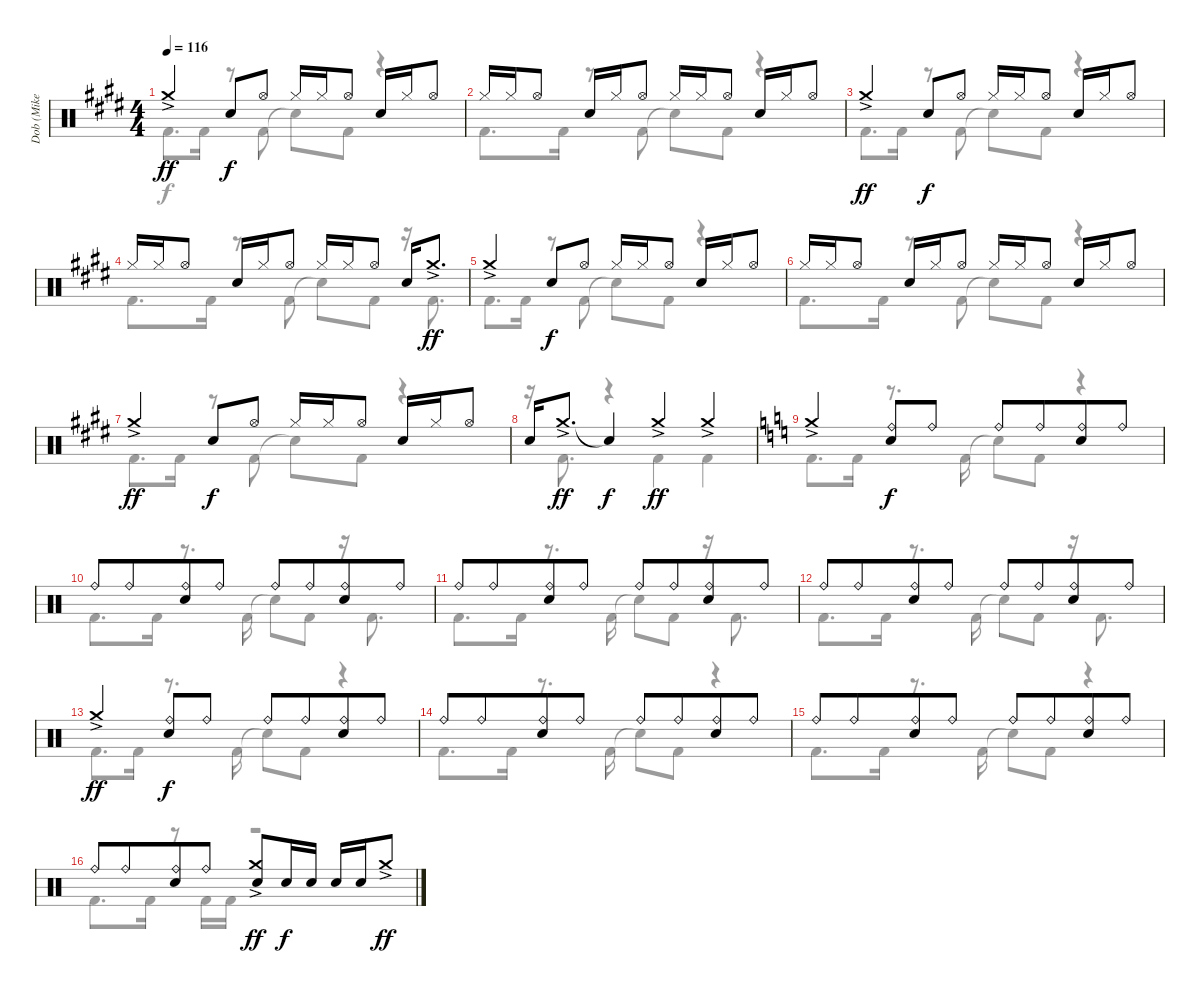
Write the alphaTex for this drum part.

\track ("Dob (Mike Terrana)" "Dob (Mike ") {instrument percussion}
\staff {score}
\articulation defaults
\voice
\ts (4 4)
\tempo 116
\clef neutral
\ks e "Crash medium (hit)"{ac}.4{dy ff} "Electric Snare (hit)".8{dy f} "Hi-Hat (open)".8 "Hi-Hat (closed)".16 "Hi-Hat (closed)".16 "Hi-Hat (open)".8 "Electric Snare (hit)".16 "Hi-Hat (closed)".16 "Hi-Hat (open)".8
|
"Hi-Hat (closed)".16 "Hi-Hat (closed)".16 "Hi-Hat (open)".8 "Electric Snare (hit)".16 "Hi-Hat (closed)".16 "Hi-Hat (open)".8 "Hi-Hat (closed)".16 "Hi-Hat (closed)".16 "Hi-Hat (open)".8 "Electric Snare (hit)".16 "Hi-Hat (closed)".16 "Hi-Hat (open)".8 |
"Crash medium (hit)"{ac}.4{dy ff} "Electric Snare (hit)".8{dy f} "Hi-Hat (open)".8 "Hi-Hat (closed)".16 "Hi-Hat (closed)".16 "Hi-Hat (open)".8 "Electric Snare (hit)".16 "Hi-Hat (closed)".16 "Hi-Hat (open)".8 |
"Hi-Hat (closed)".16 "Hi-Hat (closed)".16 "Hi-Hat (open)".8 "Electric Snare (hit)".16 "Hi-Hat (closed)".16 "Hi-Hat (open)".8 "Hi-Hat (closed)".16 "Hi-Hat (closed)".16 "Hi-Hat (open)".8 "Electric Snare (hit)".16 "Crash medium (hit)"{ac}.8{d dy ff} |
"Crash medium (hit)"{ac}.4 "Electric Snare (hit)".8{dy f} "Hi-Hat (open)".8 "Hi-Hat (closed)".16 "Hi-Hat (closed)".16 "Hi-Hat (open)".8 "Electric Snare (hit)".16 "Hi-Hat (closed)".16 "Hi-Hat (open)".8 |
"Hi-Hat (closed)".16 "Hi-Hat (closed)".16 "Hi-Hat (open)".8 "Electric Snare (hit)".16 "Hi-Hat (closed)".16 "Hi-Hat (open)".8 "Hi-Hat (closed)".16 "Hi-Hat (closed)".16 "Hi-Hat (open)".8 "Electric Snare (hit)".16 "Hi-Hat (closed)".16 "Hi-Hat (open)".8 |
"Crash medium (hit)"{ac}.4{dy ff} "Electric Snare (hit)".8{dy f} "Hi-Hat (open)".8 "Hi-Hat (closed)".16 "Hi-Hat (closed)".16 "Hi-Hat (open)".8 "Electric Snare (hit)".16 "Hi-Hat (closed)".16 "Hi-Hat (open)".8 |
"Electric Snare (hit)".16 "Crash medium (hit)"{ac}.8{d dy ff} "Snare (hit)"{t}.4{dy f} "Crash medium (hit)"{ac}.4{dy ff} "Crash medium (hit)"{ac}.4 |
\ks c "Crash medium (hit)"{ac}.4
("Ride (bell)" "Electric Snare (hit)").8{dy f} "Ride (bell)".8 "Ride (bell)".8 "Ride (bell)".8{beam merge} ("Ride (bell)" "Electric Snare (hit)").8 "Ride (bell)".8 |
"Ride (bell)".8 "Ride (bell)".8{beam merge} ("Ride (bell)" "Electric Snare (hit)").8 "Ride (bell)".8 "Ride (bell)".8 "Ride (bell)".8{beam merge} ("Ride (bell)" "Electric Snare (hit)").8 "Ride (bell)".8 |
"Ride (bell)".8 "Ride (bell)".8{beam merge} ("Ride (bell)" "Electric Snare (hit)").8 "Ride (bell)".8 "Ride (bell)".8 "Ride (bell)".8{beam merge} ("Ride (bell)" "Electric Snare (hit)").8 "Ride (bell)".8 |
"Ride (bell)".8 "Ride (bell)".8{beam merge} ("Ride (bell)" "Electric Snare (hit)").8 "Ride (bell)".8 "Ride (bell)".8 "Ride (bell)".8{beam merge} ("Ride (bell)" "Electric Snare (hit)").8 "Ride (bell)".8 |
"Crash medium (hit)"{ac}.4{dy ff} ("Ride (bell)" "Electric Snare (hit)").8{dy f} "Ride (bell)".8 "Ride (bell)".8 "Ride (bell)".8{beam merge} ("Ride (bell)" "Electric Snare (hit)").8 "Ride (bell)".8 |
"Ride (bell)".8 "Ride (bell)".8{beam merge} ("Ride (bell)" "Electric Snare (hit)").8 "Ride (bell)".8 "Ride (bell)".8 "Ride (bell)".8{beam merge} ("Ride (bell)" "Electric Snare (hit)").8 "Ride (bell)".8 |
"Ride (bell)".8 "Ride (bell)".8{beam merge} ("Ride (bell)" "Electric Snare (hit)").8 "Ride (bell)".8 "Ride (bell)".8 "Ride (bell)".8{beam merge} ("Ride (bell)" "Electric Snare (hit)").8 "Ride (bell)".8 |
"Ride (bell)".8 "Ride (bell)".8{beam merge} ("Ride (bell)" "Electric Snare (hit)").8 "Ride (bell)".8 ("Crash medium (hit)"{ac} "Electric Snare (hit)").8{dy ff} "Electric Snare (hit)".16{dy f} "Electric Snare (hit)".16 "Electric Snare (hit)".16 "Electric Snare (hit)".16 "Crash medium (hit)"{ac}.8{dy ff}
\voice
\clef neutral
\ottava regular
\simile none
\ks e "Kick (hit) 2".8{d dy f} "Kick (hit) 2".16
r.8 "Kick (hit) 2".8 "Snare (hit)"{t}.8 "Kick (hit) 2".8 r.4 |
"Kick (hit) 2".8{d} "Kick (hit) 2".16 r.8 "Kick (hit) 2".8 "Snare (hit)"{t}.8 "Kick (hit) 2".8 r.4 |
"Kick (hit) 2".8{d} "Kick (hit) 2".16 r.8 "Kick (hit) 2".8 "Snare (hit)"{t}.8 "Kick (hit) 2".8 r.4 |
"Kick (hit) 2".8{d} "Kick (hit) 2".16 r.8 "Kick (hit) 2".8 "Snare (hit)"{t}.8 "Kick (hit) 2".8 r.16 "Kick (hit) 2".8{d} |
"Kick (hit) 2".8{d} "Kick (hit) 2".16 r.8 "Kick (hit) 2".8 "Snare (hit)"{t}.8 "Kick (hit) 2".8 r.4 |
"Kick (hit) 2".8{d} "Kick (hit) 2".16 r.8 "Kick (hit) 2".8 "Snare (hit)"{t}.8 "Kick (hit) 2".8 r.4 |
"Kick (hit) 2".8{d} "Kick (hit) 2".16 r.8 "Kick (hit) 2".8 "Snare (hit)"{t}.8 "Kick (hit) 2".8 r.4 |
r.16 "Kick (hit) 2".8{d} r.4 "Kick (hit) 2".4 "Kick (hit) 2".4 |
\ks c "Kick (hit) 2".8{d} "Kick (hit) 2".16
r.8{d} "Kick (hit) 2".16 "Snare (hit)"{t}.8 "Kick (hit) 2".8 r.4 |
"Kick (hit) 2".8{d} "Kick (hit) 2".16 r.8{d} "Kick (hit) 2".16 "Snare (hit)"{t}.8 "Kick (hit) 2".8 r.16 "Kick (hit) 2".8{d} |
"Kick (hit) 2".8{d} "Kick (hit) 2".16 r.8{d} "Kick (hit) 2".16 "Snare (hit)"{t}.8 "Kick (hit) 2".8 r.16 "Kick (hit) 2".8{d} |
"Kick (hit) 2".8{d} "Kick (hit) 2".16 r.8{d} "Kick (hit) 2".16 "Snare (hit)"{t}.8 "Kick (hit) 2".8 r.16 "Kick (hit) 2".8{d} |
"Kick (hit) 2".8{d} "Kick (hit) 2".16 r.8{d} "Kick (hit) 2".16 "Snare (hit)"{t}.8 "Kick (hit) 2".8 r.4 |
"Kick (hit) 2".8{d} "Kick (hit) 2".16 r.8{d} "Kick (hit) 2".16 "Snare (hit)"{t}.8 "Kick (hit) 2".8 r.4 |
"Kick (hit) 2".8{d} "Kick (hit) 2".16 r.8{d} "Kick (hit) 2".16 "Snare (hit)"{t}.8 "Kick (hit) 2".8 r.4 |
"Kick (hit) 2".8{d} "Kick (hit) 2".16 r.8 "Kick (hit) 2".16 "Kick (hit) 2".16 r.2
